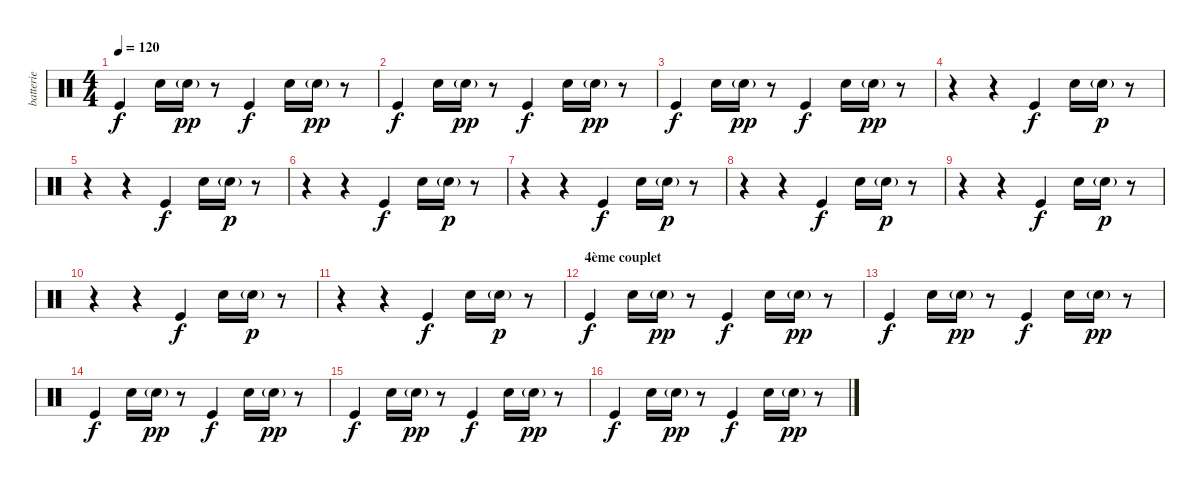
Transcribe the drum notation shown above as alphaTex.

\track ("batterie" "batterie") {instrument percussion}
\staff {score}
\articulation defaults
\ts (4 4)
\tempo 120
\clef neutral
\ks c "Kick (hit)".4{dy f} "Electric Snare (hit)".16 "Electric Snare (hit)"{g}.16{dy pp}
r.8 "Kick (hit)".4{dy f} "Electric Snare (hit)".16 "Electric Snare (hit)"{g}.16{dy pp} r.8 |
"Kick (hit)".4{dy f} "Electric Snare (hit)".16 "Electric Snare (hit)"{g}.16{dy pp} r.8 "Kick (hit)".4{dy f} "Electric Snare (hit)".16 "Electric Snare (hit)"{g}.16{dy pp} r.8 |
"Kick (hit)".4{dy f} "Electric Snare (hit)".16 "Electric Snare (hit)"{g}.16{dy pp} r.8 "Kick (hit)".4{dy f} "Electric Snare (hit)".16 "Electric Snare (hit)"{g}.16{dy pp} r.8 |
r.4 r.4 "Kick (hit)".4{dy f} "Electric Snare (hit)".16 "Electric Snare (hit)"{g}.16{dy p} r.8 |
r.4 r.4 "Kick (hit)".4{dy f} "Electric Snare (hit)".16 "Electric Snare (hit)"{g}.16{dy p} r.8 |
r.4 r.4 "Kick (hit)".4{dy f} "Electric Snare (hit)".16 "Electric Snare (hit)"{g}.16{dy p} r.8 |
r.4 r.4 "Kick (hit)".4{dy f} "Electric Snare (hit)".16 "Electric Snare (hit)"{g}.16{dy p} r.8 |
r.4 r.4 "Kick (hit)".4{dy f} "Electric Snare (hit)".16 "Electric Snare (hit)"{g}.16{dy p} r.8 |
r.4 r.4 "Kick (hit)".4{dy f} "Electric Snare (hit)".16 "Electric Snare (hit)"{g}.16{dy p} r.8 |
r.4 r.4 "Kick (hit)".4{dy f} "Electric Snare (hit)".16 "Electric Snare (hit)"{g}.16{dy p} r.8 |
r.4 r.4 "Kick (hit)".4{dy f} "Electric Snare (hit)".16 "Electric Snare (hit)"{g}.16{dy p} r.8 |
\section ("" "4ème couplet")
"Kick (hit)".4{dy f} "Electric Snare (hit)".16 "Electric Snare (hit)"{g}.16{dy pp} r.8 "Kick (hit)".4{dy f} "Electric Snare (hit)".16 "Electric Snare (hit)"{g}.16{dy pp} r.8 |
"Kick (hit)".4{dy f} "Electric Snare (hit)".16 "Electric Snare (hit)"{g}.16{dy pp} r.8 "Kick (hit)".4{dy f} "Electric Snare (hit)".16 "Electric Snare (hit)"{g}.16{dy pp} r.8 |
"Kick (hit)".4{dy f} "Electric Snare (hit)".16 "Electric Snare (hit)"{g}.16{dy pp} r.8 "Kick (hit)".4{dy f} "Electric Snare (hit)".16 "Electric Snare (hit)"{g}.16{dy pp} r.8 |
"Kick (hit)".4{dy f} "Electric Snare (hit)".16 "Electric Snare (hit)"{g}.16{dy pp} r.8 "Kick (hit)".4{dy f} "Electric Snare (hit)".16 "Electric Snare (hit)"{g}.16{dy pp} r.8 |
"Kick (hit)".4{dy f} "Electric Snare (hit)".16 "Electric Snare (hit)"{g}.16{dy pp} r.8 "Kick (hit)".4{dy f} "Electric Snare (hit)".16 "Electric Snare (hit)"{g}.16{dy pp} r.8
